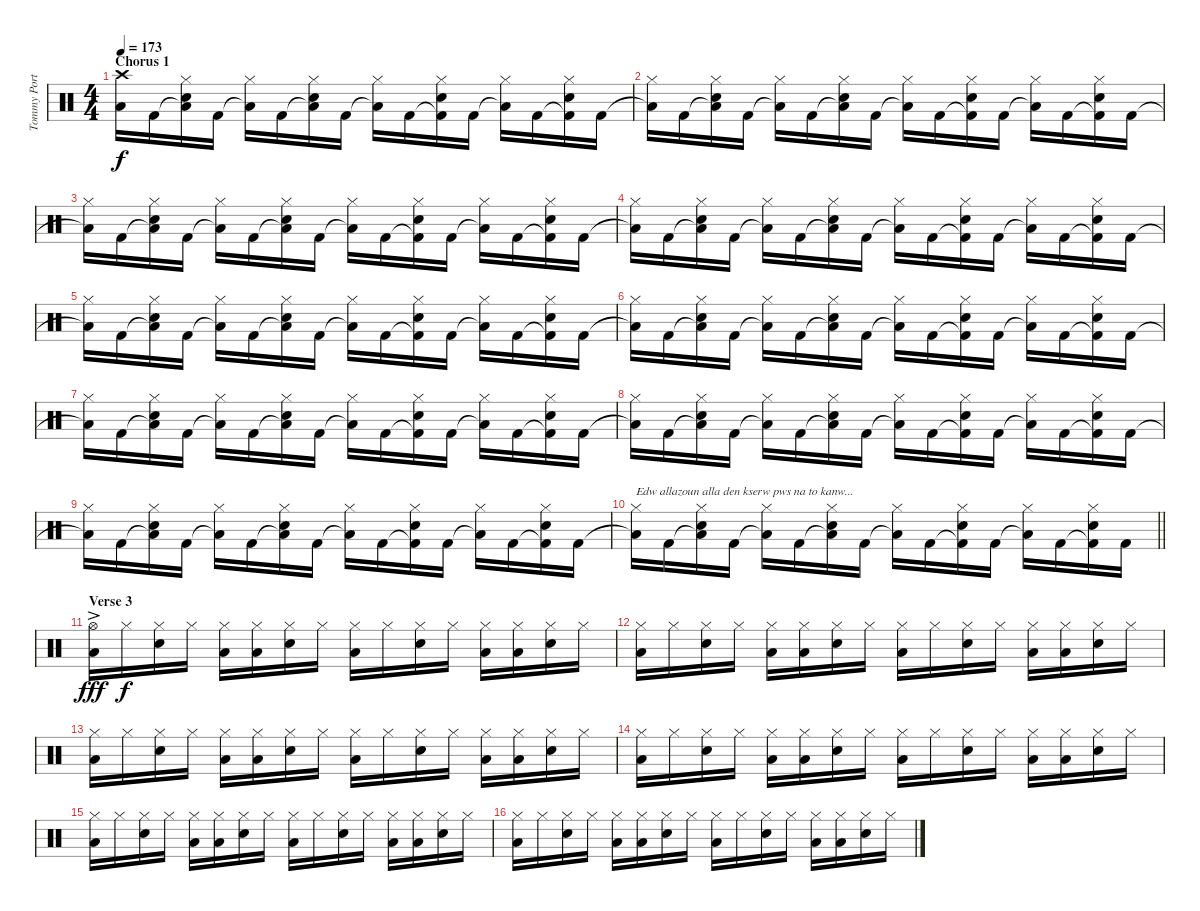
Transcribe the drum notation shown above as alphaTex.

\track ("Tommy Portimo - Drums" "Tommy Port") {instrument percussion}
\staff {score}
\articulation defaults
\ts (4 4)
\section ("" "Chorus 1")
\tempo 173
\clef neutral
\ks c
("Low Floor Tom (hit)"{t} "Crash high (hit)").16{dy f} "Kick (hit) 2".16 ("Low Floor Tom (hit)"{t} "Electric Snare (hit)" "Hi-Hat (closed)").16 "Kick (hit) 2".16 ("Low Floor Tom (hit)"{t} "Hi-Hat (closed)").16 "Kick (hit) 2".16 ("Low Floor Tom (hit)"{t} "Electric Snare (hit)" "Hi-Hat (closed)").16 "Kick (hit) 2".16 ("Low Floor Tom (hit)"{t} "Hi-Hat (closed)").16 "Kick (hit) 2".16 ("Kick (hit) 2"{t} "Electric Snare (hit)" "Hi-Hat (closed)").16 "Kick (hit) 2".16 ("Low Floor Tom (hit)"{t} "Hi-Hat (closed)").16 "Kick (hit) 2".16 ("Kick (hit) 2"{t} "Electric Snare (hit)" "Hi-Hat (closed)").16 "Kick (hit) 2".16 |
("Low Floor Tom (hit)"{t} "Hi-Hat (closed)").16 "Kick (hit) 2".16 ("Low Floor Tom (hit)"{t} "Electric Snare (hit)" "Hi-Hat (closed)").16 "Kick (hit) 2".16 ("Low Floor Tom (hit)"{t} "Hi-Hat (closed)").16 "Kick (hit) 2".16 ("Low Floor Tom (hit)"{t} "Electric Snare (hit)" "Hi-Hat (closed)").16 "Kick (hit) 2".16 ("Low Floor Tom (hit)"{t} "Hi-Hat (closed)").16 "Kick (hit) 2".16 ("Kick (hit) 2"{t} "Electric Snare (hit)" "Hi-Hat (closed)").16 "Kick (hit) 2".16 ("Low Floor Tom (hit)"{t} "Hi-Hat (closed)").16 "Kick (hit) 2".16 ("Kick (hit) 2"{t} "Electric Snare (hit)" "Hi-Hat (closed)").16 "Kick (hit) 2".16 |
("Low Floor Tom (hit)"{t} "Hi-Hat (closed)").16 "Kick (hit) 2".16 ("Low Floor Tom (hit)"{t} "Electric Snare (hit)" "Hi-Hat (closed)").16 "Kick (hit) 2".16 ("Low Floor Tom (hit)"{t} "Hi-Hat (closed)").16 "Kick (hit) 2".16 ("Low Floor Tom (hit)"{t} "Electric Snare (hit)" "Hi-Hat (closed)").16 "Kick (hit) 2".16 ("Low Floor Tom (hit)"{t} "Hi-Hat (closed)").16 "Kick (hit) 2".16 ("Kick (hit) 2"{t} "Electric Snare (hit)" "Hi-Hat (closed)").16 "Kick (hit) 2".16 ("Low Floor Tom (hit)"{t} "Hi-Hat (closed)").16 "Kick (hit) 2".16 ("Kick (hit) 2"{t} "Electric Snare (hit)" "Hi-Hat (closed)").16 "Kick (hit) 2".16 |
("Low Floor Tom (hit)"{t} "Hi-Hat (closed)").16 "Kick (hit) 2".16 ("Low Floor Tom (hit)"{t} "Electric Snare (hit)" "Hi-Hat (closed)").16 "Kick (hit) 2".16 ("Low Floor Tom (hit)"{t} "Hi-Hat (closed)").16 "Kick (hit) 2".16 ("Low Floor Tom (hit)"{t} "Electric Snare (hit)" "Hi-Hat (closed)").16 "Kick (hit) 2".16 ("Low Floor Tom (hit)"{t} "Hi-Hat (closed)").16 "Kick (hit) 2".16 ("Kick (hit) 2"{t} "Electric Snare (hit)" "Hi-Hat (closed)").16 "Kick (hit) 2".16 ("Low Floor Tom (hit)"{t} "Hi-Hat (closed)").16 "Kick (hit) 2".16 ("Kick (hit) 2"{t} "Electric Snare (hit)" "Hi-Hat (closed)").16 "Kick (hit) 2".16 |
("Low Floor Tom (hit)"{t} "Hi-Hat (closed)").16 "Kick (hit) 2".16 ("Low Floor Tom (hit)"{t} "Electric Snare (hit)" "Hi-Hat (closed)").16 "Kick (hit) 2".16 ("Low Floor Tom (hit)"{t} "Hi-Hat (closed)").16 "Kick (hit) 2".16 ("Low Floor Tom (hit)"{t} "Electric Snare (hit)" "Hi-Hat (closed)").16 "Kick (hit) 2".16 ("Low Floor Tom (hit)"{t} "Hi-Hat (closed)").16 "Kick (hit) 2".16 ("Kick (hit) 2"{t} "Electric Snare (hit)" "Hi-Hat (closed)").16 "Kick (hit) 2".16 ("Low Floor Tom (hit)"{t} "Hi-Hat (closed)").16 "Kick (hit) 2".16 ("Kick (hit) 2"{t} "Electric Snare (hit)" "Hi-Hat (closed)").16 "Kick (hit) 2".16 |
("Low Floor Tom (hit)"{t} "Hi-Hat (closed)").16 "Kick (hit) 2".16 ("Low Floor Tom (hit)"{t} "Electric Snare (hit)" "Hi-Hat (closed)").16 "Kick (hit) 2".16 ("Low Floor Tom (hit)"{t} "Hi-Hat (closed)").16 "Kick (hit) 2".16 ("Low Floor Tom (hit)"{t} "Electric Snare (hit)" "Hi-Hat (closed)").16 "Kick (hit) 2".16 ("Low Floor Tom (hit)"{t} "Hi-Hat (closed)").16 "Kick (hit) 2".16 ("Kick (hit) 2"{t} "Electric Snare (hit)" "Hi-Hat (closed)").16 "Kick (hit) 2".16 ("Low Floor Tom (hit)"{t} "Hi-Hat (closed)").16 "Kick (hit) 2".16 ("Kick (hit) 2"{t} "Electric Snare (hit)" "Hi-Hat (closed)").16 "Kick (hit) 2".16 |
("Low Floor Tom (hit)"{t} "Hi-Hat (closed)").16 "Kick (hit) 2".16 ("Low Floor Tom (hit)"{t} "Electric Snare (hit)" "Hi-Hat (closed)").16 "Kick (hit) 2".16 ("Low Floor Tom (hit)"{t} "Hi-Hat (closed)").16 "Kick (hit) 2".16 ("Low Floor Tom (hit)"{t} "Electric Snare (hit)" "Hi-Hat (closed)").16 "Kick (hit) 2".16 ("Low Floor Tom (hit)"{t} "Hi-Hat (closed)").16 "Kick (hit) 2".16 ("Kick (hit) 2"{t} "Electric Snare (hit)" "Hi-Hat (closed)").16 "Kick (hit) 2".16 ("Low Floor Tom (hit)"{t} "Hi-Hat (closed)").16 "Kick (hit) 2".16 ("Kick (hit) 2"{t} "Electric Snare (hit)" "Hi-Hat (closed)").16 "Kick (hit) 2".16 |
("Low Floor Tom (hit)"{t} "Hi-Hat (closed)").16 "Kick (hit) 2".16 ("Low Floor Tom (hit)"{t} "Electric Snare (hit)" "Hi-Hat (closed)").16 "Kick (hit) 2".16 ("Low Floor Tom (hit)"{t} "Hi-Hat (closed)").16 "Kick (hit) 2".16 ("Low Floor Tom (hit)"{t} "Electric Snare (hit)" "Hi-Hat (closed)").16 "Kick (hit) 2".16 ("Low Floor Tom (hit)"{t} "Hi-Hat (closed)").16 "Kick (hit) 2".16 ("Kick (hit) 2"{t} "Electric Snare (hit)" "Hi-Hat (closed)").16 "Kick (hit) 2".16 ("Low Floor Tom (hit)"{t} "Hi-Hat (closed)").16 "Kick (hit) 2".16 ("Kick (hit) 2"{t} "Electric Snare (hit)" "Hi-Hat (closed)").16 "Kick (hit) 2".16 |
("Low Floor Tom (hit)"{t} "Hi-Hat (closed)").16 "Kick (hit) 2".16 ("Low Floor Tom (hit)"{t} "Electric Snare (hit)" "Hi-Hat (closed)").16 "Kick (hit) 2".16 ("Low Floor Tom (hit)"{t} "Hi-Hat (closed)").16 "Kick (hit) 2".16 ("Low Floor Tom (hit)"{t} "Electric Snare (hit)" "Hi-Hat (closed)").16 "Kick (hit) 2".16 ("Low Floor Tom (hit)"{t} "Hi-Hat (closed)").16 "Kick (hit) 2".16 ("Kick (hit) 2"{t} "Electric Snare (hit)" "Hi-Hat (closed)").16 "Kick (hit) 2".16 ("Low Floor Tom (hit)"{t} "Hi-Hat (closed)").16 "Kick (hit) 2".16 ("Kick (hit) 2"{t} "Electric Snare (hit)" "Hi-Hat (closed)").16 "Kick (hit) 2".16 |
\barLineRight lightlight
("Low Floor Tom (hit)"{t} "Hi-Hat (closed)").16{txt "Edw allazoun alla den kserw pws na to kanw..."} "Kick (hit) 2".16 ("Low Floor Tom (hit)"{t} "Electric Snare (hit)" "Hi-Hat (closed)").16 "Kick (hit) 2".16 ("Low Floor Tom (hit)"{t} "Hi-Hat (closed)").16 "Kick (hit) 2".16 ("Low Floor Tom (hit)"{t} "Electric Snare (hit)" "Hi-Hat (closed)").16 "Kick (hit) 2".16 ("Low Floor Tom (hit)"{t} "Hi-Hat (closed)").16 "Kick (hit) 2".16 ("Kick (hit) 2"{t} "Electric Snare (hit)" "Hi-Hat (closed)").16 "Kick (hit) 2".16 ("Low Floor Tom (hit)"{t} "Hi-Hat (closed)").16 "Kick (hit) 2".16 ("Kick (hit) 2"{t} "Electric Snare (hit)" "Hi-Hat (closed)").16 "Kick (hit) 2".16 |
\section ("" "Verse 3")
\ks aminor
("Low Floor Tom (hit)"{ac} "Hi-Hat (open)").16{dy fff} "Hi-Hat (closed)".16{dy f} ("Electric Snare (hit)" "Hi-Hat (closed)").16 "Hi-Hat (closed)".16 ("Low Floor Tom (hit)" "Hi-Hat (closed)").16 ("Low Floor Tom (hit)" "Hi-Hat (closed)").16 ("Electric Snare (hit)" "Hi-Hat (closed)").16 "Hi-Hat (closed)".16 ("Low Floor Tom (hit)" "Hi-Hat (closed)").16 "Hi-Hat (closed)".16 ("Electric Snare (hit)" "Hi-Hat (closed)").16 "Hi-Hat (closed)".16 ("Low Floor Tom (hit)" "Hi-Hat (closed)").16 ("Low Floor Tom (hit)" "Hi-Hat (closed)").16 ("Electric Snare (hit)" "Hi-Hat (closed)").16 "Hi-Hat (closed)".16 |
("Low Floor Tom (hit)" "Hi-Hat (closed)").16 "Hi-Hat (closed)".16 ("Electric Snare (hit)" "Hi-Hat (closed)").16 "Hi-Hat (closed)".16 ("Low Floor Tom (hit)" "Hi-Hat (closed)").16 ("Low Floor Tom (hit)" "Hi-Hat (closed)").16 ("Electric Snare (hit)" "Hi-Hat (closed)").16 "Hi-Hat (closed)".16 ("Low Floor Tom (hit)" "Hi-Hat (closed)").16 "Hi-Hat (closed)".16 ("Electric Snare (hit)" "Hi-Hat (closed)").16 "Hi-Hat (closed)".16 ("Low Floor Tom (hit)" "Hi-Hat (closed)").16 ("Low Floor Tom (hit)" "Hi-Hat (closed)").16 ("Electric Snare (hit)" "Hi-Hat (closed)").16 "Hi-Hat (closed)".16 |
("Low Floor Tom (hit)" "Hi-Hat (closed)").16 "Hi-Hat (closed)".16 ("Electric Snare (hit)" "Hi-Hat (closed)").16 "Hi-Hat (closed)".16 ("Low Floor Tom (hit)" "Hi-Hat (closed)").16 ("Low Floor Tom (hit)" "Hi-Hat (closed)").16 ("Electric Snare (hit)" "Hi-Hat (closed)").16 "Hi-Hat (closed)".16 ("Low Floor Tom (hit)" "Hi-Hat (closed)").16 "Hi-Hat (closed)".16 ("Electric Snare (hit)" "Hi-Hat (closed)").16 "Hi-Hat (closed)".16 ("Low Floor Tom (hit)" "Hi-Hat (closed)").16 ("Low Floor Tom (hit)" "Hi-Hat (closed)").16 ("Electric Snare (hit)" "Hi-Hat (closed)").16 "Hi-Hat (closed)".16 |
("Low Floor Tom (hit)" "Hi-Hat (closed)").16 "Hi-Hat (closed)".16 ("Electric Snare (hit)" "Hi-Hat (closed)").16 "Hi-Hat (closed)".16 ("Low Floor Tom (hit)" "Hi-Hat (closed)").16 ("Low Floor Tom (hit)" "Hi-Hat (closed)").16 ("Electric Snare (hit)" "Hi-Hat (closed)").16 "Hi-Hat (closed)".16 ("Low Floor Tom (hit)" "Hi-Hat (closed)").16 "Hi-Hat (closed)".16 ("Electric Snare (hit)" "Hi-Hat (closed)").16 "Hi-Hat (closed)".16 ("Low Floor Tom (hit)" "Hi-Hat (closed)").16 ("Low Floor Tom (hit)" "Hi-Hat (closed)").16 ("Electric Snare (hit)" "Hi-Hat (closed)").16 "Hi-Hat (closed)".16 |
("Low Floor Tom (hit)" "Hi-Hat (closed)").16 "Hi-Hat (closed)".16 ("Electric Snare (hit)" "Hi-Hat (closed)").16 "Hi-Hat (closed)".16 ("Low Floor Tom (hit)" "Hi-Hat (closed)").16 ("Low Floor Tom (hit)" "Hi-Hat (closed)").16 ("Electric Snare (hit)" "Hi-Hat (closed)").16 "Hi-Hat (closed)".16 ("Low Floor Tom (hit)" "Hi-Hat (closed)").16 "Hi-Hat (closed)".16 ("Electric Snare (hit)" "Hi-Hat (closed)").16 "Hi-Hat (closed)".16 ("Low Floor Tom (hit)" "Hi-Hat (closed)").16 ("Low Floor Tom (hit)" "Hi-Hat (closed)").16 ("Electric Snare (hit)" "Hi-Hat (closed)").16 "Hi-Hat (closed)".16 |
("Low Floor Tom (hit)" "Hi-Hat (closed)").16 "Hi-Hat (closed)".16 ("Electric Snare (hit)" "Hi-Hat (closed)").16 "Hi-Hat (closed)".16 ("Low Floor Tom (hit)" "Hi-Hat (closed)").16 ("Low Floor Tom (hit)" "Hi-Hat (closed)").16 ("Electric Snare (hit)" "Hi-Hat (closed)").16 "Hi-Hat (closed)".16 ("Low Floor Tom (hit)" "Hi-Hat (closed)").16 "Hi-Hat (closed)".16 ("Electric Snare (hit)" "Hi-Hat (closed)").16 "Hi-Hat (closed)".16 ("Low Floor Tom (hit)" "Hi-Hat (closed)").16 ("Low Floor Tom (hit)" "Hi-Hat (closed)").16 ("Electric Snare (hit)" "Hi-Hat (closed)").16 "Hi-Hat (closed)".16
